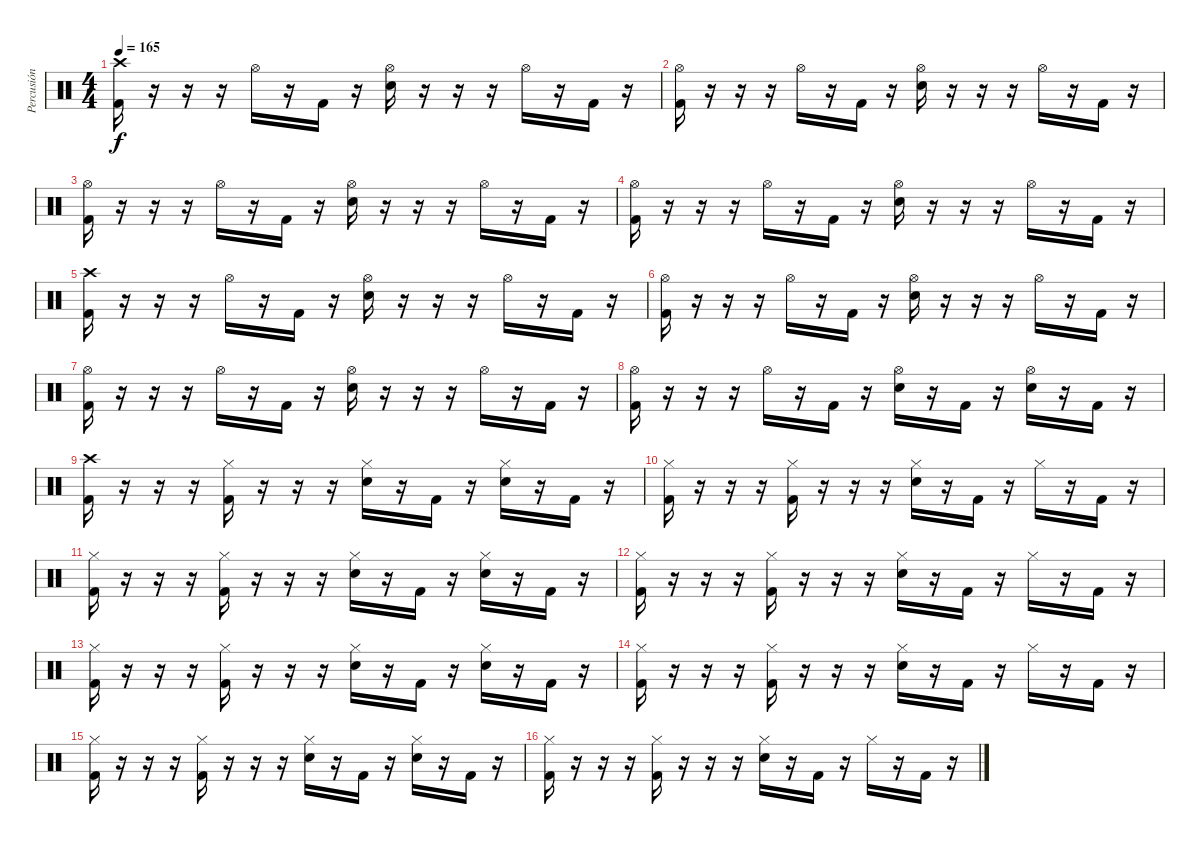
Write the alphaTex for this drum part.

\track ("Percusión" "Percusión") {instrument percussion}
\staff {score}
\articulation defaults
\ts (4 4)
\tempo 165
\clef neutral
\ks c
("Crash high (hit)" "Kick (hit) 2").16{dy f} r.16 r.16 r.16 "Hi-Hat (open)".16 r.16 "Kick (hit) 2".16 r.16 ("Hi-Hat (open)" "Electric Snare (hit)").16 r.16 r.16 r.16 "Hi-Hat (open)".16 r.16 "Kick (hit) 2".16 r.16 |
("Hi-Hat (open)" "Kick (hit) 2").16 r.16 r.16 r.16 "Hi-Hat (open)".16 r.16 "Kick (hit) 2".16 r.16 ("Hi-Hat (open)" "Electric Snare (hit)").16 r.16 r.16 r.16 "Hi-Hat (open)".16 r.16 "Kick (hit) 2".16 r.16 |
("Hi-Hat (open)" "Kick (hit) 2").16 r.16 r.16 r.16 "Hi-Hat (open)".16 r.16 "Kick (hit) 2".16 r.16 ("Hi-Hat (open)" "Electric Snare (hit)").16 r.16 r.16 r.16 "Hi-Hat (open)".16 r.16 "Kick (hit) 2".16 r.16 |
("Hi-Hat (open)" "Kick (hit) 2").16 r.16 r.16 r.16 "Hi-Hat (open)".16 r.16 "Kick (hit) 2".16 r.16 ("Hi-Hat (open)" "Electric Snare (hit)").16 r.16 r.16 r.16 "Hi-Hat (open)".16 r.16 "Kick (hit) 2".16 r.16 |
("Crash high (hit)" "Kick (hit) 2").16 r.16 r.16 r.16 "Hi-Hat (open)".16 r.16 "Kick (hit) 2".16 r.16 ("Hi-Hat (open)" "Electric Snare (hit)").16 r.16 r.16 r.16 "Hi-Hat (open)".16 r.16 "Kick (hit) 2".16 r.16 |
("Hi-Hat (open)" "Kick (hit) 2").16 r.16 r.16 r.16 "Hi-Hat (open)".16 r.16 "Kick (hit) 2".16 r.16 ("Hi-Hat (open)" "Electric Snare (hit)").16 r.16 r.16 r.16 "Hi-Hat (open)".16 r.16 "Kick (hit) 2".16 r.16 |
("Hi-Hat (open)" "Kick (hit) 2").16 r.16 r.16 r.16 "Hi-Hat (open)".16 r.16 "Kick (hit) 2".16 r.16 ("Hi-Hat (open)" "Electric Snare (hit)").16 r.16 r.16 r.16 "Hi-Hat (open)".16 r.16 "Kick (hit) 2".16 r.16 |
("Hi-Hat (open)" "Kick (hit) 2").16 r.16 r.16 r.16 "Hi-Hat (open)".16 r.16 "Kick (hit) 2".16 r.16 ("Hi-Hat (open)" "Electric Snare (hit)").16 r.16 "Kick (hit) 2".16 r.16 ("Hi-Hat (open)" "Electric Snare (hit)").16 r.16 "Kick (hit) 2".16 r.16 |
("Crash high (hit)" "Kick (hit) 2").16 r.16 r.16 r.16 ("Hi-Hat (closed)" "Kick (hit) 2").16 r.16 r.16 r.16 ("Hi-Hat (closed)" "Electric Snare (hit)").16 r.16 "Kick (hit) 2".16 r.16 ("Hi-Hat (closed)" "Electric Snare (hit)").16 r.16 "Kick (hit) 2".16 r.16 |
("Hi-Hat (closed)" "Kick (hit) 2").16 r.16 r.16 r.16 ("Hi-Hat (closed)" "Kick (hit) 2").16 r.16 r.16 r.16 ("Hi-Hat (closed)" "Electric Snare (hit)").16 r.16 "Kick (hit) 2".16 r.16 "Hi-Hat (closed)".16 r.16 "Kick (hit) 2".16 r.16 |
("Hi-Hat (closed)" "Kick (hit) 2").16 r.16 r.16 r.16 ("Hi-Hat (closed)" "Kick (hit) 2").16 r.16 r.16 r.16 ("Hi-Hat (closed)" "Electric Snare (hit)").16 r.16 "Kick (hit) 2".16 r.16 ("Hi-Hat (closed)" "Electric Snare (hit)").16 r.16 "Kick (hit) 2".16 r.16 |
("Hi-Hat (closed)" "Kick (hit) 2").16 r.16 r.16 r.16 ("Hi-Hat (closed)" "Kick (hit) 2").16 r.16 r.16 r.16 ("Hi-Hat (closed)" "Electric Snare (hit)").16 r.16 "Kick (hit) 2".16 r.16 "Hi-Hat (closed)".16 r.16 "Kick (hit) 2".16 r.16 |
("Hi-Hat (closed)" "Kick (hit) 2").16 r.16 r.16 r.16 ("Hi-Hat (closed)" "Kick (hit) 2").16 r.16 r.16 r.16 ("Hi-Hat (closed)" "Electric Snare (hit)").16 r.16 "Kick (hit) 2".16 r.16 ("Hi-Hat (closed)" "Electric Snare (hit)").16 r.16 "Kick (hit) 2".16 r.16 |
("Hi-Hat (closed)" "Kick (hit) 2").16 r.16 r.16 r.16 ("Hi-Hat (closed)" "Kick (hit) 2").16 r.16 r.16 r.16 ("Hi-Hat (closed)" "Electric Snare (hit)").16 r.16 "Kick (hit) 2".16 r.16 "Hi-Hat (closed)".16 r.16 "Kick (hit) 2".16 r.16 |
("Hi-Hat (closed)" "Kick (hit) 2").16 r.16 r.16 r.16 ("Hi-Hat (closed)" "Kick (hit) 2").16 r.16 r.16 r.16 ("Hi-Hat (closed)" "Electric Snare (hit)").16 r.16 "Kick (hit) 2".16 r.16 ("Hi-Hat (closed)" "Electric Snare (hit)").16 r.16 "Kick (hit) 2".16 r.16 |
("Hi-Hat (closed)" "Kick (hit) 2").16 r.16 r.16 r.16 ("Hi-Hat (closed)" "Kick (hit) 2").16 r.16 r.16 r.16 ("Hi-Hat (closed)" "Electric Snare (hit)").16 r.16 "Kick (hit) 2".16 r.16 "Hi-Hat (closed)".16 r.16 "Kick (hit) 2".16 r.16
